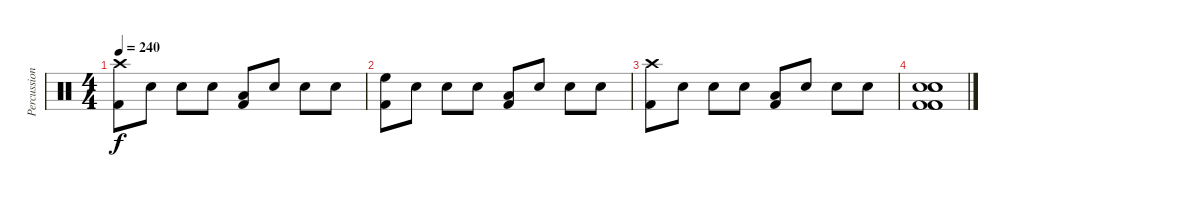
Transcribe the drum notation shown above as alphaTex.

\track ("Percussion" "Percussion") {instrument percussion}
\staff {score}
\articulation defaults
\ts (4 4)
\tempo 240
\clef neutral
\ks c
("Crash high (hit)" "Kick (hit) 2").8{dy f} "Electric Snare (hit)".8 "Electric Snare (hit)".8 "Electric Snare (hit)".8 ("Low Tom (hit)" "Kick (hit) 2").8 "Electric Snare (hit)".8 "Electric Snare (hit)".8 "Electric Snare (hit)".8 |
("High Floor Tom (hit)" "Kick (hit) 2").8 "Electric Snare (hit)".8 "Electric Snare (hit)".8 "Electric Snare (hit)".8 ("Low Tom (hit)" "Kick (hit) 2").8 "Electric Snare (hit)".8 "Electric Snare (hit)".8 "Electric Snare (hit)".8 |
("Crash high (hit)" "Kick (hit) 2").8 "Electric Snare (hit)".8 "Electric Snare (hit)".8 "Electric Snare (hit)".8 ("Low Tom (hit)" "Kick (hit) 2").8 "Electric Snare (hit)".8 "Electric Snare (hit)".8 "Electric Snare (hit)".8 |
("Electric Snare (hit)" "Electric Snare (hit)" "Kick (hit) 2" "Electric Snare (hit)" "Kick (hit) 2" "Kick (hit) 2").1
